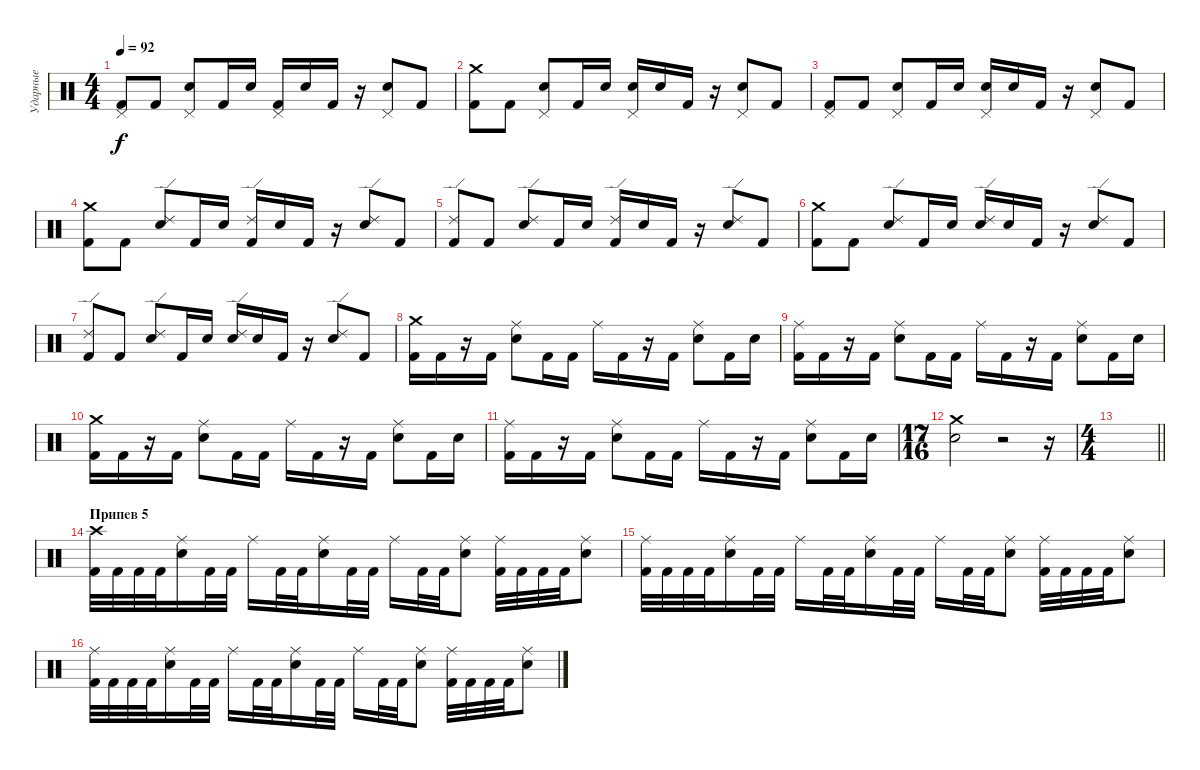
\track ("Ударные" "Ударные") {instrument percussion}
\staff {score}
\articulation defaults
\ts (4 4)
\tempo 92
\clef neutral
\ks c
("Pedal Hi-Hat (hit)" "Kick (hit) 2").8{dy f} "Kick (hit) 2".8 ("Pedal Hi-Hat (hit)" "Electric Snare (hit)").8 "Kick (hit) 2".16 "Electric Snare (hit)".16 ("Pedal Hi-Hat (hit)" "Kick (hit) 2").16 "Electric Snare (hit)".16 "Kick (hit) 2".16 r.16 ("Pedal Hi-Hat (hit)" "Electric Snare (hit)").8 "Kick (hit) 2".8 |
("Crash medium (hit)" "Kick (hit) 2").8 "Kick (hit) 2".8 ("Pedal Hi-Hat (hit)" "Electric Snare (hit)").8 "Kick (hit) 2".16 "Electric Snare (hit)".16 ("Pedal Hi-Hat (hit)" "Electric Snare (hit)").16 "Electric Snare (hit)".16 "Kick (hit) 2".16 r.16 ("Pedal Hi-Hat (hit)" "Electric Snare (hit)").8 "Kick (hit) 2".8 |
("Pedal Hi-Hat (hit)" "Kick (hit) 2").8 "Kick (hit) 2".8 ("Pedal Hi-Hat (hit)" "Electric Snare (hit)").8 "Kick (hit) 2".16 "Electric Snare (hit)".16 ("Pedal Hi-Hat (hit)" "Electric Snare (hit)").16 "Electric Snare (hit)".16 "Kick (hit) 2".16 r.16 ("Pedal Hi-Hat (hit)" "Electric Snare (hit)").8 "Kick (hit) 2".8 |
("Crash medium (hit)" "Kick (hit) 2").8 "Kick (hit) 2".8 ("Ride (edge) 2" "Electric Snare (hit)").8 "Kick (hit) 2".16 "Electric Snare (hit)".16 ("Ride (edge) 2" "Kick (hit) 2").16 "Electric Snare (hit)".16 "Kick (hit) 2".16 r.16 ("Ride (edge) 2" "Electric Snare (hit)").8 "Kick (hit) 2".8 |
("Ride (edge) 2" "Kick (hit) 2").8 "Kick (hit) 2".8 ("Ride (edge) 2" "Electric Snare (hit)").8 "Kick (hit) 2".16 "Electric Snare (hit)".16 ("Ride (edge) 2" "Kick (hit) 2").16 "Electric Snare (hit)".16 "Kick (hit) 2".16 r.16 ("Ride (edge) 2" "Electric Snare (hit)").8 "Kick (hit) 2".8 |
("Crash medium (hit)" "Kick (hit) 2").8 "Kick (hit) 2".8 ("Ride (edge) 2" "Electric Snare (hit)").8 "Kick (hit) 2".16 "Electric Snare (hit)".16 ("Ride (edge) 2" "Electric Snare (hit)").16 "Electric Snare (hit)".16 "Kick (hit) 2".16 r.16 ("Ride (edge) 2" "Electric Snare (hit)").8 "Kick (hit) 2".8 |
("Ride (edge) 2" "Kick (hit) 2").8 "Kick (hit) 2".8 ("Ride (edge) 2" "Electric Snare (hit)").8 "Kick (hit) 2".16 "Electric Snare (hit)".16 ("Ride (edge) 2" "Electric Snare (hit)").16 "Electric Snare (hit)".16 "Kick (hit) 2".16 r.16 ("Ride (edge) 2" "Electric Snare (hit)").8 "Kick (hit) 2".8 |
("Crash medium (hit)" "Kick (hit) 2").16 "Kick (hit) 2".16 r.16 "Kick (hit) 2".16 ("Ride (middle)" "Electric Snare (hit)").8 "Kick (hit) 2".16 "Kick (hit) 2".16 "Ride (middle)".16 "Kick (hit) 2".16 r.16 "Kick (hit) 2".16 ("Ride (middle)" "Electric Snare (hit)").8 "Kick (hit) 2".16 "Electric Snare (hit)".16 |
("Ride (middle)" "Kick (hit) 2").16 "Kick (hit) 2".16 r.16 "Kick (hit) 2".16 ("Ride (middle)" "Electric Snare (hit)").8 "Kick (hit) 2".16 "Kick (hit) 2".16 "Ride (middle)".16 "Kick (hit) 2".16 r.16 "Kick (hit) 2".16 ("Ride (middle)" "Electric Snare (hit)").8 "Kick (hit) 2".16 "Electric Snare (hit)".16 |
("Crash medium (hit)" "Kick (hit) 2").16 "Kick (hit) 2".16 r.16 "Kick (hit) 2".16 ("Ride (middle)" "Electric Snare (hit)").8 "Kick (hit) 2".16 "Kick (hit) 2".16 "Ride (middle)".16 "Kick (hit) 2".16 r.16 "Kick (hit) 2".16 ("Ride (middle)" "Electric Snare (hit)").8 "Kick (hit) 2".16 "Electric Snare (hit)".16 |
("Ride (middle)" "Kick (hit) 2").16 "Kick (hit) 2".16 r.16 "Kick (hit) 2".16 ("Ride (middle)" "Electric Snare (hit)").8 "Kick (hit) 2".16 "Kick (hit) 2".16 "Ride (middle)".16 "Kick (hit) 2".16 r.16 "Kick (hit) 2".16 ("Ride (middle)" "Electric Snare (hit)").8 "Kick (hit) 2".16 "Electric Snare (hit)".16 |
\ts (17 16)
("Electric Snare (hit)" "Crash medium (hit)").2 r.2 r.16 |
\ts (4 4)
\barLineRight lightlight
|
\section ("" "Припев 5")
("Crash high (hit)" "Kick (hit) 2").32 "Kick (hit) 2".32 "Kick (hit) 2".32 "Kick (hit) 2".32 ("Ride (middle)" "Electric Snare (hit)").16 "Kick (hit) 2".32 "Kick (hit) 2".32 "Ride (middle)".16 "Kick (hit) 2".32 "Kick (hit) 2".32 ("Electric Snare (hit)" "Ride (middle)").16 "Kick (hit) 2".32 "Kick (hit) 2".32 "Ride (middle)".16 "Kick (hit) 2".32 "Kick (hit) 2".32 ("Electric Snare (hit)" "Ride (middle)").8 ("Kick (hit) 2" "Ride (middle)").32 "Kick (hit) 2".32 "Kick (hit) 2".32 "Kick (hit) 2".32 ("Electric Snare (hit)" "Ride (middle)").8 |
("Ride (middle)" "Kick (hit) 2").32 "Kick (hit) 2".32 "Kick (hit) 2".32 "Kick (hit) 2".32 ("Ride (middle)" "Electric Snare (hit)").16 "Kick (hit) 2".32 "Kick (hit) 2".32 "Ride (middle)".16 "Kick (hit) 2".32 "Kick (hit) 2".32 ("Electric Snare (hit)" "Ride (middle)").16 "Kick (hit) 2".32 "Kick (hit) 2".32 "Ride (middle)".16 "Kick (hit) 2".32 "Kick (hit) 2".32 ("Electric Snare (hit)" "Ride (middle)").8 ("Kick (hit) 2" "Ride (middle)").32 "Kick (hit) 2".32 "Kick (hit) 2".32 "Kick (hit) 2".32 ("Electric Snare (hit)" "Ride (middle)").8 |
("Ride (middle)" "Kick (hit) 2").32 "Kick (hit) 2".32 "Kick (hit) 2".32 "Kick (hit) 2".32 ("Ride (middle)" "Electric Snare (hit)").16 "Kick (hit) 2".32 "Kick (hit) 2".32 "Ride (middle)".16 "Kick (hit) 2".32 "Kick (hit) 2".32 ("Electric Snare (hit)" "Ride (middle)").16 "Kick (hit) 2".32 "Kick (hit) 2".32 "Ride (middle)".16 "Kick (hit) 2".32 "Kick (hit) 2".32 ("Electric Snare (hit)" "Ride (middle)").8 ("Kick (hit) 2" "Ride (middle)").32 "Kick (hit) 2".32 "Kick (hit) 2".32 "Kick (hit) 2".32 ("Electric Snare (hit)" "Ride (middle)").8
